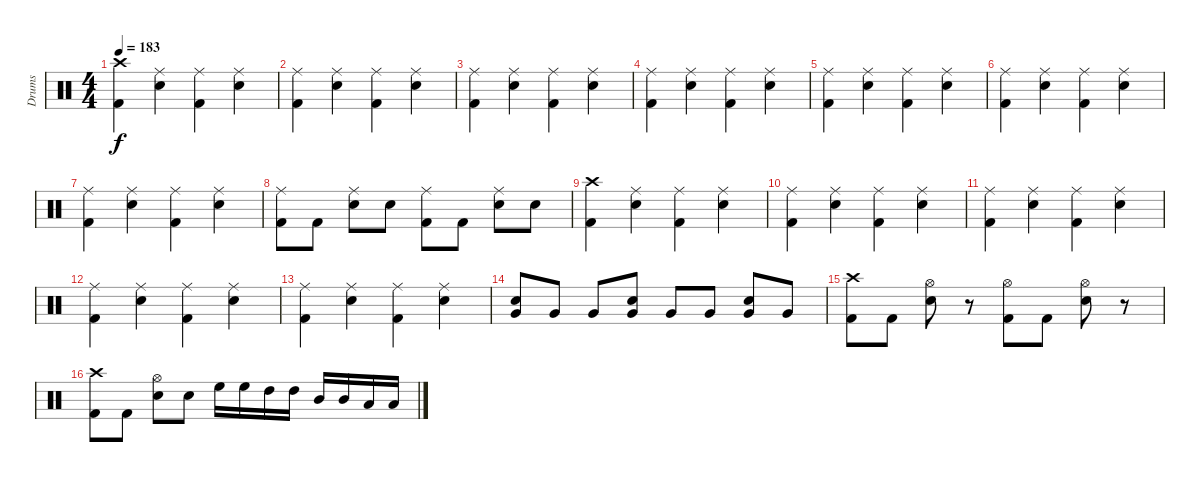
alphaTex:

\track ("Drums" "Drums") {instrument percussion}
\staff {score}
\articulation defaults
\ts (4 4)
\tempo 183
\clef neutral
\ks c
("Crash high (hit)" "Kick (hit) 2").4{dy f} ("Ride (middle)" "Electric Snare (hit)").4 ("Ride (middle)" "Kick (hit) 2").4 ("Ride (middle)" "Electric Snare (hit)").4 |
("Ride (middle)" "Kick (hit) 2").4 ("Ride (middle)" "Electric Snare (hit)").4 ("Ride (middle)" "Kick (hit) 2").4 ("Ride (middle)" "Electric Snare (hit)").4 |
("Ride (middle)" "Kick (hit) 2").4 ("Ride (middle)" "Electric Snare (hit)").4 ("Ride (middle)" "Kick (hit) 2").4 ("Ride (middle)" "Electric Snare (hit)").4 |
("Ride (middle)" "Kick (hit) 2").4 ("Ride (middle)" "Electric Snare (hit)").4 ("Ride (middle)" "Kick (hit) 2").4 ("Ride (middle)" "Electric Snare (hit)").4 |
("Ride (middle)" "Kick (hit) 2").4 ("Ride (middle)" "Electric Snare (hit)").4 ("Ride (middle)" "Kick (hit) 2").4 ("Ride (middle)" "Electric Snare (hit)").4 |
("Ride (middle)" "Kick (hit) 2").4 ("Ride (middle)" "Electric Snare (hit)").4 ("Ride (middle)" "Kick (hit) 2").4 ("Ride (middle)" "Electric Snare (hit)").4 |
("Ride (middle)" "Kick (hit) 2").4 ("Ride (middle)" "Electric Snare (hit)").4 ("Ride (middle)" "Kick (hit) 2").4 ("Ride (middle)" "Electric Snare (hit)").4 |
("Ride (middle)" "Kick (hit) 2").8 "Kick (hit) 2".8 ("Ride (middle)" "Electric Snare (hit)").8 "Electric Snare (hit)".8 ("Ride (middle)" "Kick (hit) 2").8 "Kick (hit) 2".8 ("Ride (middle)" "Electric Snare (hit)").8 "Electric Snare (hit)".8 |
("Crash high (hit)" "Kick (hit) 2").4 ("Ride (middle)" "Electric Snare (hit)").4 ("Ride (middle)" "Kick (hit) 2").4 ("Ride (middle)" "Electric Snare (hit)").4 |
("Ride (middle)" "Kick (hit) 2").4 ("Ride (middle)" "Electric Snare (hit)").4 ("Ride (middle)" "Kick (hit) 2").4 ("Ride (middle)" "Electric Snare (hit)").4 |
("Ride (middle)" "Kick (hit) 2").4 ("Ride (middle)" "Electric Snare (hit)").4 ("Ride (middle)" "Kick (hit) 2").4 ("Ride (middle)" "Electric Snare (hit)").4 |
("Ride (middle)" "Kick (hit) 2").4 ("Ride (middle)" "Electric Snare (hit)").4 ("Ride (middle)" "Kick (hit) 2").4 ("Ride (middle)" "Electric Snare (hit)").4 |
("Ride (middle)" "Kick (hit) 2").4 ("Ride (middle)" "Electric Snare (hit)").4 ("Ride (middle)" "Kick (hit) 2").4 ("Ride (middle)" "Electric Snare (hit)").4 |
("Very Low Tom (hit)" "Electric Snare (hit)").8 "Very Low Tom (hit)".8 "Very Low Tom (hit)".8 ("Very Low Tom (hit)" "Electric Snare (hit)").8 "Very Low Tom (hit)".8 "Very Low Tom (hit)".8 ("Very Low Tom (hit)" "Electric Snare (hit)").8 "Very Low Tom (hit)".8 |
("Crash high (hit)" "Kick (hit) 2").8 "Kick (hit) 2".8 ("Hi-Hat (open)" "Electric Snare (hit)").8 r.8 ("Hi-Hat (open)" "Kick (hit) 2").8 "Kick (hit) 2".8 ("Hi-Hat (open)" "Electric Snare (hit)").8 r.8 |
("Crash high (hit)" "Kick (hit) 2").8 "Kick (hit) 2".8 ("Hi-Hat (open)" "Electric Snare (hit)").8 "Electric Snare (hit)".8 "High Floor Tom (hit)".16 "High Floor Tom (hit)".16 "High Tom (hit)".16 "High Tom (hit)".16 "Mid Tom (hit)".16 "Mid Tom (hit)".16 "Low Tom (hit)".16 "Low Tom (hit)".16
